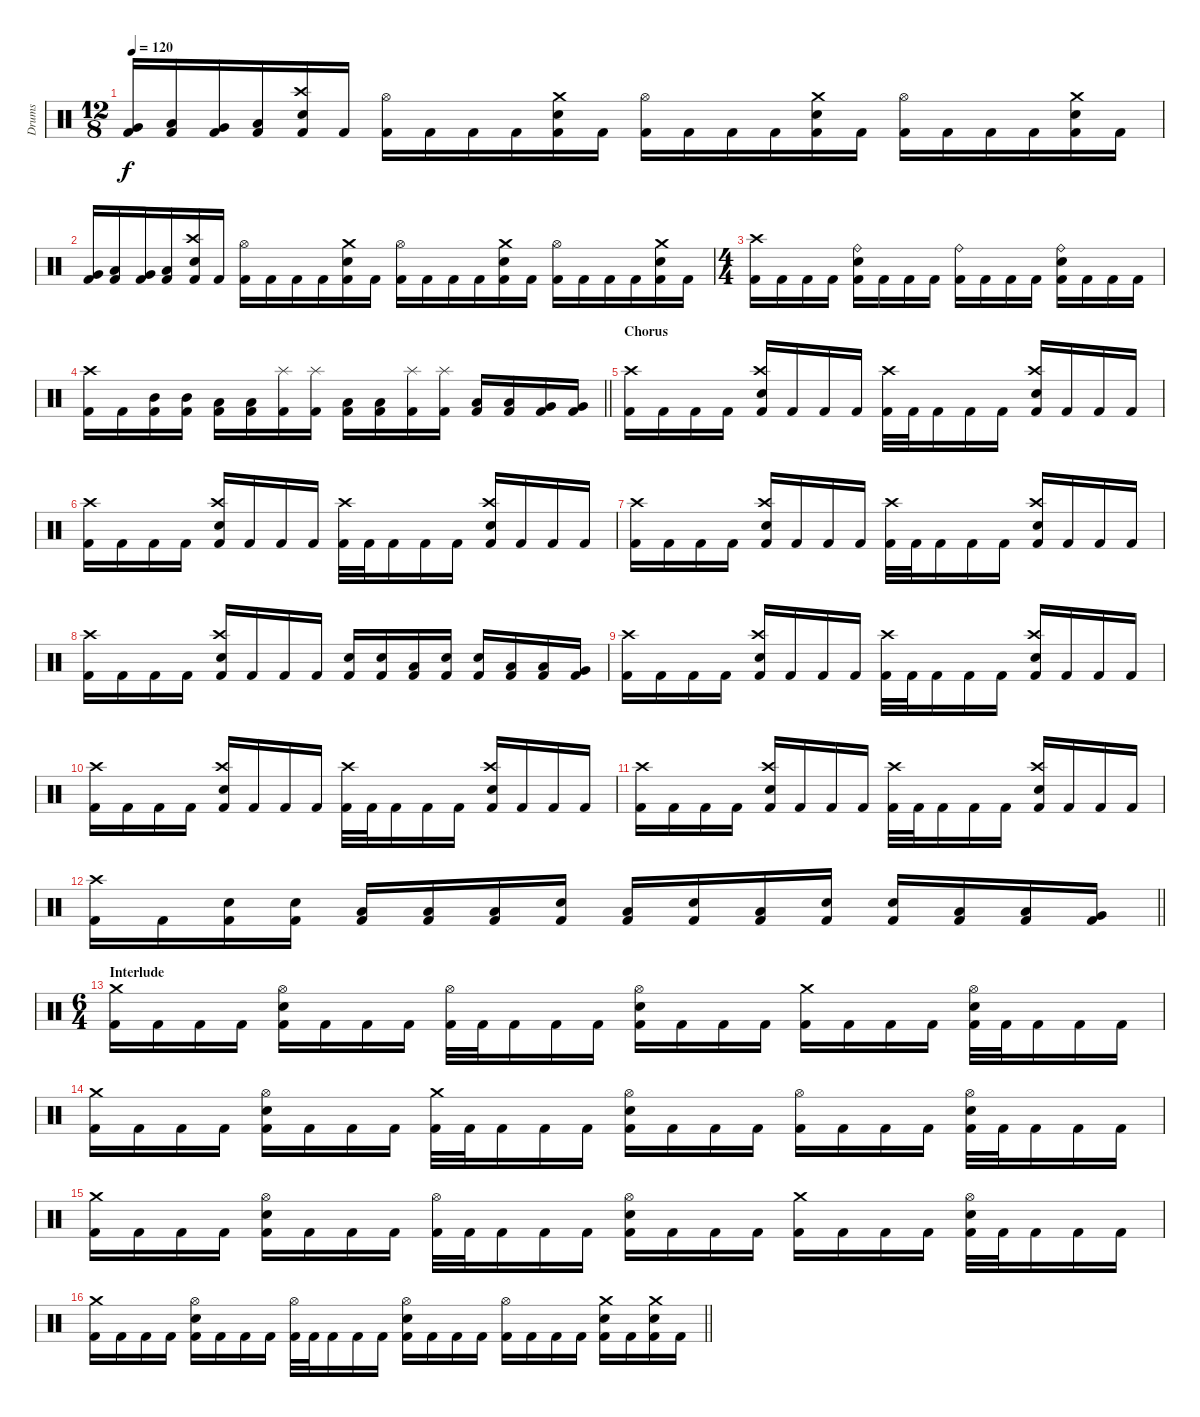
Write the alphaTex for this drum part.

\track ("Drums" "Drums") {instrument percussion}
\staff {score}
\articulation defaults
\ts (12 8)
\tempo 120
\clef neutral
\ks c
("Very Low Tom (hit)" "Kick (hit) 2").16{dy f} ("Low Tom (hit)" "Kick (hit) 2").16 ("Very Low Tom (hit)" "Kick (hit) 2").16 ("Low Tom (hit)" "Kick (hit) 2").16 ("Crash high (hit)" "Electric Snare (hit)" "Kick (hit) 2").16 "Kick (hit) 2".16 ("Hi-Hat (open)" "Kick (hit) 2").16 "Kick (hit) 2".16 "Kick (hit) 2".16 "Kick (hit) 2".16 ("Crash medium (hit)" "Electric Snare (hit)" "Kick (hit) 2").16 "Kick (hit) 2".16 ("Hi-Hat (open)" "Kick (hit) 2").16 "Kick (hit) 2".16 "Kick (hit) 2".16 "Kick (hit) 2".16 ("Crash medium (hit)" "Electric Snare (hit)" "Kick (hit) 2").16 "Kick (hit) 2".16 ("Hi-Hat (open)" "Kick (hit) 2").16 "Kick (hit) 2".16 "Kick (hit) 2".16 "Kick (hit) 2".16 ("Crash medium (hit)" "Electric Snare (hit)" "Kick (hit) 2").16 "Kick (hit) 2".16 |
("Very Low Tom (hit)" "Kick (hit) 2").16 ("Low Tom (hit)" "Kick (hit) 2").16 ("Very Low Tom (hit)" "Kick (hit) 2").16 ("Low Tom (hit)" "Kick (hit) 2").16 ("Crash high (hit)" "Electric Snare (hit)" "Kick (hit) 2").16 "Kick (hit) 2".16 ("Hi-Hat (open)" "Kick (hit) 2").16 "Kick (hit) 2".16 "Kick (hit) 2".16 "Kick (hit) 2".16 ("Crash medium (hit)" "Electric Snare (hit)" "Kick (hit) 2").16 "Kick (hit) 2".16 ("Hi-Hat (open)" "Kick (hit) 2").16 "Kick (hit) 2".16 "Kick (hit) 2".16 "Kick (hit) 2".16 ("Crash medium (hit)" "Electric Snare (hit)" "Kick (hit) 2").16 "Kick (hit) 2".16 ("Hi-Hat (open)" "Kick (hit) 2").16 "Kick (hit) 2".16 "Kick (hit) 2".16 "Kick (hit) 2".16 ("Crash medium (hit)" "Electric Snare (hit)" "Kick (hit) 2").16 "Kick (hit) 2".16 |
\ts (4 4)
("Crash high (hit)" "Kick (hit) 2").16 "Kick (hit) 2".16 "Kick (hit) 2".16 "Kick (hit) 2".16 ("Ride (bell)" "Electric Snare (hit)" "Kick (hit) 2").16 "Kick (hit) 2".16 "Kick (hit) 2".16 "Kick (hit) 2".16 ("Ride (bell)" "Kick (hit) 2").16 "Kick (hit) 2".16 "Kick (hit) 2".16 "Kick (hit) 2".16 ("Ride (bell)" "Electric Snare (hit)" "Kick (hit) 2").16 "Kick (hit) 2".16 "Kick (hit) 2".16 "Kick (hit) 2".16 |
\barLineRight lightlight
("Crash high (hit)" "Kick (hit) 2").16 "Kick (hit) 2".16 ("Mid Tom (hit)" "Kick (hit) 2").16 ("Mid Tom (hit)" "Kick (hit) 2").16 ("Low Tom (hit)" "Kick (hit) 2").16 ("Low Tom (hit)" "Kick (hit) 2").16 ("Splash (hit)" "Kick (hit) 2").16 ("Splash (hit)" "Kick (hit) 2").16 ("Low Tom (hit)" "Kick (hit) 2").16 ("Low Tom (hit)" "Kick (hit) 2").16 ("Splash (hit)" "Kick (hit) 2").16 ("Splash (hit)" "Kick (hit) 2").16 ("Low Tom (hit)" "Kick (hit) 2").16 ("Low Tom (hit)" "Kick (hit) 2").16 ("Very Low Tom (hit)" "Kick (hit) 2").16 ("Very Low Tom (hit)" "Kick (hit) 2").16 |
\section ("" "Chorus")
("Crash high (hit)" "Kick (hit) 2").16 "Kick (hit) 2".16 "Kick (hit) 2".16 "Kick (hit) 2".16 ("Crash high (hit)" "Electric Snare (hit)" "Kick (hit) 2").16 "Kick (hit) 2".16 "Kick (hit) 2".16 "Kick (hit) 2".16 ("Crash high (hit)" "Kick (hit) 2").32 "Kick (hit) 2".32 "Kick (hit) 2".16 "Kick (hit) 2".16 "Kick (hit) 2".16 ("Crash high (hit)" "Electric Snare (hit)" "Kick (hit) 2").16 "Kick (hit) 2".16 "Kick (hit) 2".16 "Kick (hit) 2".16 |
("Crash high (hit)" "Kick (hit) 2").16 "Kick (hit) 2".16 "Kick (hit) 2".16 "Kick (hit) 2".16 ("Crash high (hit)" "Electric Snare (hit)" "Kick (hit) 2").16 "Kick (hit) 2".16 "Kick (hit) 2".16 "Kick (hit) 2".16 ("Crash high (hit)" "Kick (hit) 2").32 "Kick (hit) 2".32 "Kick (hit) 2".16 "Kick (hit) 2".16 "Kick (hit) 2".16 ("Crash high (hit)" "Electric Snare (hit)" "Kick (hit) 2").16 "Kick (hit) 2".16 "Kick (hit) 2".16 "Kick (hit) 2".16 |
("Crash high (hit)" "Kick (hit) 2").16 "Kick (hit) 2".16 "Kick (hit) 2".16 "Kick (hit) 2".16 ("Crash high (hit)" "Electric Snare (hit)" "Kick (hit) 2").16 "Kick (hit) 2".16 "Kick (hit) 2".16 "Kick (hit) 2".16 ("Crash high (hit)" "Kick (hit) 2").32 "Kick (hit) 2".32 "Kick (hit) 2".16 "Kick (hit) 2".16 "Kick (hit) 2".16 ("Crash high (hit)" "Electric Snare (hit)" "Kick (hit) 2").16 "Kick (hit) 2".16 "Kick (hit) 2".16 "Kick (hit) 2".16 |
("Crash high (hit)" "Kick (hit) 2").16 "Kick (hit) 2".16 "Kick (hit) 2".16 "Kick (hit) 2".16 ("Crash high (hit)" "Electric Snare (hit)" "Kick (hit) 2").16 "Kick (hit) 2".16 "Kick (hit) 2".16 "Kick (hit) 2".16 ("Electric Snare (hit)" "Kick (hit) 2").16 ("Electric Snare (hit)" "Kick (hit) 2").16 ("Low Tom (hit)" "Kick (hit) 2").16 ("Electric Snare (hit)" "Kick (hit) 2").16 ("Electric Snare (hit)" "Kick (hit) 2").16 ("Low Tom (hit)" "Kick (hit) 2").16 ("Low Tom (hit)" "Kick (hit) 2").16 ("Very Low Tom (hit)" "Kick (hit) 2").16 |
("Crash high (hit)" "Kick (hit) 2").16 "Kick (hit) 2".16 "Kick (hit) 2".16 "Kick (hit) 2".16 ("Crash high (hit)" "Electric Snare (hit)" "Kick (hit) 2").16 "Kick (hit) 2".16 "Kick (hit) 2".16 "Kick (hit) 2".16 ("Crash high (hit)" "Kick (hit) 2").32 "Kick (hit) 2".32 "Kick (hit) 2".16 "Kick (hit) 2".16 "Kick (hit) 2".16 ("Crash high (hit)" "Electric Snare (hit)" "Kick (hit) 2").16 "Kick (hit) 2".16 "Kick (hit) 2".16 "Kick (hit) 2".16 |
("Crash high (hit)" "Kick (hit) 2").16 "Kick (hit) 2".16 "Kick (hit) 2".16 "Kick (hit) 2".16 ("Crash high (hit)" "Electric Snare (hit)" "Kick (hit) 2").16 "Kick (hit) 2".16 "Kick (hit) 2".16 "Kick (hit) 2".16 ("Crash high (hit)" "Kick (hit) 2").32 "Kick (hit) 2".32 "Kick (hit) 2".16 "Kick (hit) 2".16 "Kick (hit) 2".16 ("Crash high (hit)" "Electric Snare (hit)" "Kick (hit) 2").16 "Kick (hit) 2".16 "Kick (hit) 2".16 "Kick (hit) 2".16 |
("Crash high (hit)" "Kick (hit) 2").16 "Kick (hit) 2".16 "Kick (hit) 2".16 "Kick (hit) 2".16 ("Crash high (hit)" "Electric Snare (hit)" "Kick (hit) 2").16 "Kick (hit) 2".16 "Kick (hit) 2".16 "Kick (hit) 2".16 ("Crash high (hit)" "Kick (hit) 2").32 "Kick (hit) 2".32 "Kick (hit) 2".16 "Kick (hit) 2".16 "Kick (hit) 2".16 ("Crash high (hit)" "Electric Snare (hit)" "Kick (hit) 2").16 "Kick (hit) 2".16 "Kick (hit) 2".16 "Kick (hit) 2".16 |
\barLineRight lightlight
("Crash high (hit)" "Kick (hit) 2").16 "Kick (hit) 2".16 ("Electric Snare (hit)" "Kick (hit) 2").16 ("Electric Snare (hit)" "Kick (hit) 2").16 ("Low Tom (hit)" "Kick (hit) 2").16 ("Low Tom (hit)" "Kick (hit) 2").16 ("Low Tom (hit)" "Kick (hit) 2").16 ("Electric Snare (hit)" "Kick (hit) 2").16 ("Low Tom (hit)" "Kick (hit) 2").16 ("Electric Snare (hit)" "Kick (hit) 2").16 ("Low Tom (hit)" "Kick (hit) 2").16 ("Electric Snare (hit)" "Kick (hit) 2").16 ("Electric Snare (hit)" "Kick (hit) 2").16 ("Low Tom (hit)" "Kick (hit) 2").16 ("Low Tom (hit)" "Kick (hit) 2").16 ("Very Low Tom (hit)" "Kick (hit) 2").16 |
\ts (6 4)
\section ("" "Interlude")
("Crash medium (hit)" "Kick (hit) 2").16 "Kick (hit) 2".16 "Kick (hit) 2".16 "Kick (hit) 2".16 ("Hi-Hat (open)" "Electric Snare (hit)" "Kick (hit) 2").16 "Kick (hit) 2".16 "Kick (hit) 2".16 "Kick (hit) 2".16 ("Hi-Hat (open)" "Kick (hit) 2").32 "Kick (hit) 2".32 "Kick (hit) 2".16 "Kick (hit) 2".16 "Kick (hit) 2".16 ("Hi-Hat (open)" "Electric Snare (hit)" "Kick (hit) 2").16 "Kick (hit) 2".16 "Kick (hit) 2".16 "Kick (hit) 2".16 ("Crash medium (hit)" "Kick (hit) 2").16 "Kick (hit) 2".16 "Kick (hit) 2".16 "Kick (hit) 2".16 ("Hi-Hat (open)" "Electric Snare (hit)" "Kick (hit) 2").32 "Kick (hit) 2".32 "Kick (hit) 2".16 "Kick (hit) 2".16 "Kick (hit) 2".16 |
("Crash medium (hit)" "Kick (hit) 2").16 "Kick (hit) 2".16 "Kick (hit) 2".16 "Kick (hit) 2".16 ("Hi-Hat (open)" "Electric Snare (hit)" "Kick (hit) 2").16 "Kick (hit) 2".16 "Kick (hit) 2".16 "Kick (hit) 2".16 ("Crash medium (hit)" "Kick (hit) 2").32 "Kick (hit) 2".32 "Kick (hit) 2".16 "Kick (hit) 2".16 "Kick (hit) 2".16 ("Hi-Hat (open)" "Electric Snare (hit)" "Kick (hit) 2").16 "Kick (hit) 2".16 "Kick (hit) 2".16 "Kick (hit) 2".16 ("Hi-Hat (open)" "Kick (hit) 2").16 "Kick (hit) 2".16 "Kick (hit) 2".16 "Kick (hit) 2".16 ("Hi-Hat (open)" "Electric Snare (hit)" "Kick (hit) 2").32 "Kick (hit) 2".32 "Kick (hit) 2".16 "Kick (hit) 2".16 "Kick (hit) 2".16 |
("Crash medium (hit)" "Kick (hit) 2").16 "Kick (hit) 2".16 "Kick (hit) 2".16 "Kick (hit) 2".16 ("Hi-Hat (open)" "Electric Snare (hit)" "Kick (hit) 2").16 "Kick (hit) 2".16 "Kick (hit) 2".16 "Kick (hit) 2".16 ("Hi-Hat (open)" "Kick (hit) 2").32 "Kick (hit) 2".32 "Kick (hit) 2".16 "Kick (hit) 2".16 "Kick (hit) 2".16 ("Hi-Hat (open)" "Electric Snare (hit)" "Kick (hit) 2").16 "Kick (hit) 2".16 "Kick (hit) 2".16 "Kick (hit) 2".16 ("Crash medium (hit)" "Kick (hit) 2").16 "Kick (hit) 2".16 "Kick (hit) 2".16 "Kick (hit) 2".16 ("Hi-Hat (open)" "Electric Snare (hit)" "Kick (hit) 2").32 "Kick (hit) 2".32 "Kick (hit) 2".16 "Kick (hit) 2".16 "Kick (hit) 2".16 |
\barLineRight lightlight
("Crash medium (hit)" "Kick (hit) 2").16 "Kick (hit) 2".16 "Kick (hit) 2".16 "Kick (hit) 2".16 ("Hi-Hat (open)" "Electric Snare (hit)" "Kick (hit) 2").16 "Kick (hit) 2".16 "Kick (hit) 2".16 "Kick (hit) 2".16 ("Hi-Hat (open)" "Kick (hit) 2").32 "Kick (hit) 2".32 "Kick (hit) 2".16 "Kick (hit) 2".16 "Kick (hit) 2".16 ("Hi-Hat (open)" "Electric Snare (hit)" "Kick (hit) 2").16 "Kick (hit) 2".16 "Kick (hit) 2".16 "Kick (hit) 2".16 ("Hi-Hat (open)" "Kick (hit) 2").16 "Kick (hit) 2".16 "Kick (hit) 2".16 "Kick (hit) 2".16 ("Crash medium (hit)" "Electric Snare (hit)" "Kick (hit) 2").16 "Kick (hit) 2".16 ("Crash medium (hit)" "Electric Snare (hit)" "Kick (hit) 2").16 "Kick (hit) 2".16
